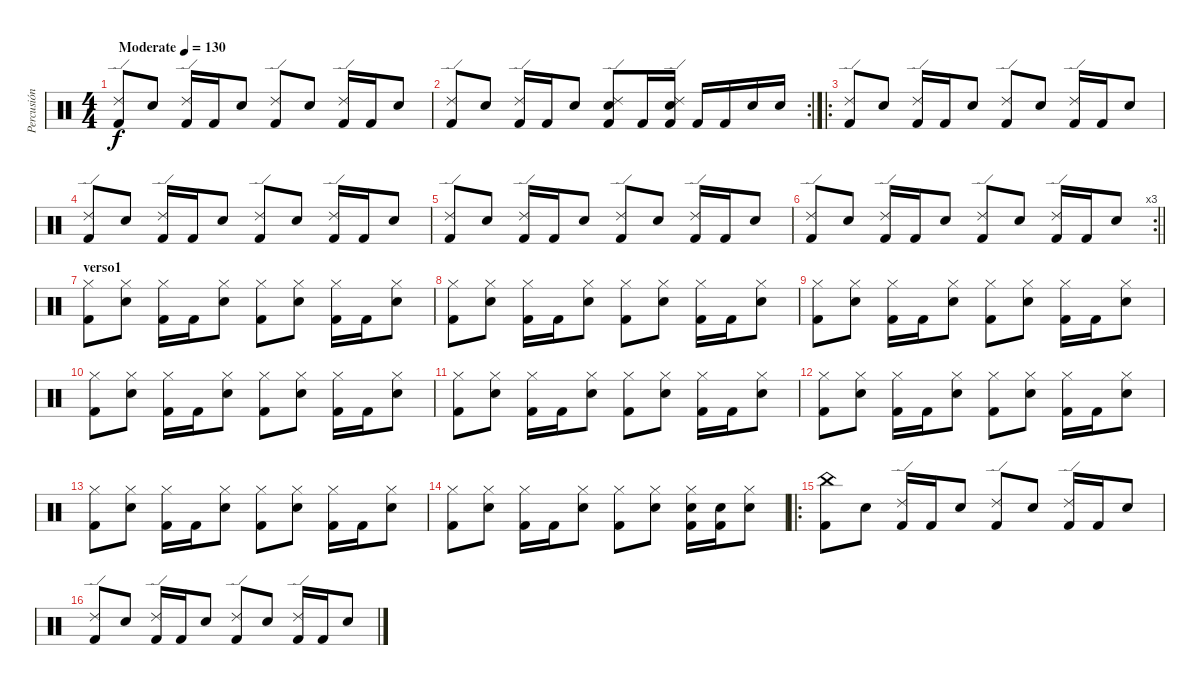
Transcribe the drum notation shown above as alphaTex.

\track ("Percusión" "Percusión") {instrument percussion}
\staff {score}
\articulation defaults
\ts (4 4)
\tempo (130 "Moderate")
\clef neutral
\ks c
("Ride (edge) 2" "Kick (hit) 2").8{dy f} "Electric Snare (hit)".8 ("Ride (edge) 2" "Kick (hit) 2").16 "Kick (hit) 2".16 "Electric Snare (hit)".8 ("Ride (edge) 2" "Kick (hit) 2").8 "Electric Snare (hit)".8 ("Ride (edge) 2" "Kick (hit) 2").16 "Kick (hit) 2".16 "Electric Snare (hit)".8 |
\rc 2
("Ride (edge) 2" "Kick (hit) 2").8 "Electric Snare (hit)".8 ("Ride (edge) 2" "Kick (hit) 2").16 "Kick (hit) 2".16 "Electric Snare (hit)".8 ("Ride (edge) 2" "Electric Snare (hit)" "Kick (hit) 2").8 "Kick (hit) 2".16 ("Ride (edge) 2" "Electric Snare (hit)" "Kick (hit) 2").16 "Kick (hit) 2".16 "Kick (hit) 2".16 "Electric Snare (hit)".16 "Electric Snare (hit)".16 |
\ro
("Ride (edge) 2" "Kick (hit) 2").8 "Electric Snare (hit)".8 ("Ride (edge) 2" "Kick (hit) 2").16 "Kick (hit) 2".16 "Electric Snare (hit)".8 ("Ride (edge) 2" "Kick (hit) 2").8 "Electric Snare (hit)".8 ("Ride (edge) 2" "Kick (hit) 2").16 "Kick (hit) 2".16 "Electric Snare (hit)".8 |
("Ride (edge) 2" "Kick (hit) 2").8 "Electric Snare (hit)".8 ("Ride (edge) 2" "Kick (hit) 2").16 "Kick (hit) 2".16 "Electric Snare (hit)".8 ("Ride (edge) 2" "Kick (hit) 2").8 "Electric Snare (hit)".8 ("Ride (edge) 2" "Kick (hit) 2").16 "Kick (hit) 2".16 "Electric Snare (hit)".8 |
("Ride (edge) 2" "Kick (hit) 2").8 "Electric Snare (hit)".8 ("Ride (edge) 2" "Kick (hit) 2").16 "Kick (hit) 2".16 "Electric Snare (hit)".8 ("Ride (edge) 2" "Kick (hit) 2").8 "Electric Snare (hit)".8 ("Ride (edge) 2" "Kick (hit) 2").16 "Kick (hit) 2".16 "Electric Snare (hit)".8 |
\rc 3
\barLineRight lightlight
("Ride (edge) 2" "Kick (hit) 2").8 "Electric Snare (hit)".8 ("Ride (edge) 2" "Kick (hit) 2").16 "Kick (hit) 2".16 "Electric Snare (hit)".8 ("Ride (edge) 2" "Kick (hit) 2").8 "Electric Snare (hit)".8 ("Ride (edge) 2" "Kick (hit) 2").16 "Kick (hit) 2".16 "Electric Snare (hit)".8 |
\section ("" "verso1")
("Hi-Hat (closed)" "Kick (hit) 2").8 ("Hi-Hat (closed)" "Electric Snare (hit)").8 ("Hi-Hat (closed)" "Kick (hit) 2").16 "Kick (hit) 2".16 ("Hi-Hat (closed)" "Electric Snare (hit)").8 ("Hi-Hat (closed)" "Kick (hit) 2").8 ("Hi-Hat (closed)" "Electric Snare (hit)").8 ("Hi-Hat (closed)" "Kick (hit) 2").16 "Kick (hit) 2".16 ("Hi-Hat (closed)" "Electric Snare (hit)").8 |
("Hi-Hat (closed)" "Kick (hit) 2").8 ("Hi-Hat (closed)" "Electric Snare (hit)").8 ("Hi-Hat (closed)" "Kick (hit) 2").16 "Kick (hit) 2".16 ("Hi-Hat (closed)" "Electric Snare (hit)").8 ("Hi-Hat (closed)" "Kick (hit) 2").8 ("Hi-Hat (closed)" "Electric Snare (hit)").8 ("Hi-Hat (closed)" "Kick (hit) 2").16 "Kick (hit) 2".16 ("Hi-Hat (closed)" "Electric Snare (hit)").8 |
("Hi-Hat (closed)" "Kick (hit) 2").8 ("Hi-Hat (closed)" "Electric Snare (hit)").8 ("Hi-Hat (closed)" "Kick (hit) 2").16 "Kick (hit) 2".16 ("Hi-Hat (closed)" "Electric Snare (hit)").8 ("Hi-Hat (closed)" "Kick (hit) 2").8 ("Hi-Hat (closed)" "Electric Snare (hit)").8 ("Hi-Hat (closed)" "Kick (hit) 2").16 "Kick (hit) 2".16 ("Hi-Hat (closed)" "Electric Snare (hit)").8 |
("Hi-Hat (closed)" "Kick (hit) 2").8 ("Hi-Hat (closed)" "Electric Snare (hit)").8 ("Hi-Hat (closed)" "Kick (hit) 2").16 "Kick (hit) 2".16 ("Hi-Hat (closed)" "Electric Snare (hit)").8 ("Hi-Hat (closed)" "Kick (hit) 2").8 ("Hi-Hat (closed)" "Electric Snare (hit)").8 ("Hi-Hat (closed)" "Kick (hit) 2").16 "Kick (hit) 2".16 ("Hi-Hat (closed)" "Electric Snare (hit)").8 |
("Hi-Hat (closed)" "Kick (hit) 2").8 ("Hi-Hat (closed)" "Electric Snare (hit)").8 ("Hi-Hat (closed)" "Kick (hit) 2").16 "Kick (hit) 2".16 ("Hi-Hat (closed)" "Electric Snare (hit)").8 ("Hi-Hat (closed)" "Kick (hit) 2").8 ("Hi-Hat (closed)" "Electric Snare (hit)").8 ("Hi-Hat (closed)" "Kick (hit) 2").16 "Kick (hit) 2".16 ("Hi-Hat (closed)" "Electric Snare (hit)").8 |
("Hi-Hat (closed)" "Kick (hit) 2").8 ("Hi-Hat (closed)" "Electric Snare (hit)").8 ("Hi-Hat (closed)" "Kick (hit) 2").16 "Kick (hit) 2".16 ("Hi-Hat (closed)" "Electric Snare (hit)").8 ("Hi-Hat (closed)" "Kick (hit) 2").8 ("Hi-Hat (closed)" "Electric Snare (hit)").8 ("Hi-Hat (closed)" "Kick (hit) 2").16 "Kick (hit) 2".16 ("Hi-Hat (closed)" "Electric Snare (hit)").8 |
("Hi-Hat (closed)" "Kick (hit) 2").8 ("Hi-Hat (closed)" "Electric Snare (hit)").8 ("Hi-Hat (closed)" "Kick (hit) 2").16 "Kick (hit) 2".16 ("Hi-Hat (closed)" "Electric Snare (hit)").8 ("Hi-Hat (closed)" "Kick (hit) 2").8 ("Hi-Hat (closed)" "Electric Snare (hit)").8 ("Hi-Hat (closed)" "Kick (hit) 2").16 "Kick (hit) 2".16 ("Hi-Hat (closed)" "Electric Snare (hit)").8 |
("Hi-Hat (closed)" "Kick (hit) 2").8 ("Hi-Hat (closed)" "Electric Snare (hit)").8 ("Hi-Hat (closed)" "Kick (hit) 2").16 "Kick (hit) 2".16 ("Hi-Hat (closed)" "Electric Snare (hit)").8 ("Hi-Hat (closed)" "Kick (hit) 2").8 ("Hi-Hat (closed)" "Electric Snare (hit)").8 ("Hi-Hat (closed)" "Electric Snare (hit)" "Kick (hit) 2").16 ("Electric Snare (hit)" "Kick (hit) 2").16 ("Hi-Hat (closed)" "Electric Snare (hit)").8 |
\ro
("China (hit)" "Kick (hit) 2").8 "Electric Snare (hit)".8 ("Ride (edge) 2" "Kick (hit) 2").16 "Kick (hit) 2".16 "Electric Snare (hit)".8 ("Ride (edge) 2" "Kick (hit) 2").8 "Electric Snare (hit)".8 ("Ride (edge) 2" "Kick (hit) 2").16 "Kick (hit) 2".16 "Electric Snare (hit)".8 |
("Ride (edge) 2" "Kick (hit) 2").8 "Electric Snare (hit)".8 ("Ride (edge) 2" "Kick (hit) 2").16 "Kick (hit) 2".16 "Electric Snare (hit)".8 ("Ride (edge) 2" "Kick (hit) 2").8 "Electric Snare (hit)".8 ("Ride (edge) 2" "Kick (hit) 2").16 "Kick (hit) 2".16 "Electric Snare (hit)".8
